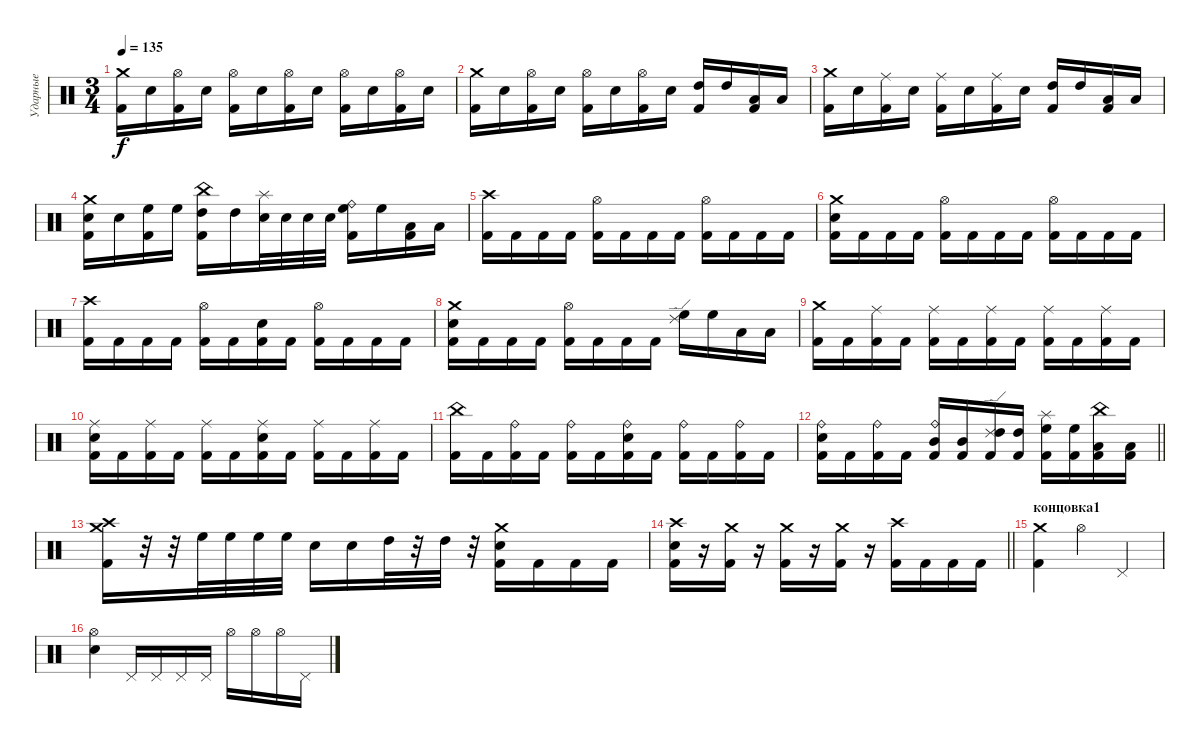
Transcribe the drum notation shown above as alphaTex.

\track ("Ударные" "Ударные") {instrument percussion}
\staff {score}
\articulation defaults
\ts (3 4)
\tempo 135
\clef neutral
\ks c
("Crash medium (hit)" "Kick (hit) 2").16{dy f} "Electric Snare (hit)".16 ("Hi-Hat (open)" "Kick (hit) 2").16 "Electric Snare (hit)".16 ("Hi-Hat (open)" "Kick (hit) 2").16 "Electric Snare (hit)".16 ("Hi-Hat (open)" "Kick (hit) 2").16 "Electric Snare (hit)".16 ("Hi-Hat (open)" "Kick (hit) 2").16 "Electric Snare (hit)".16 ("Hi-Hat (open)" "Kick (hit) 2").16 "Electric Snare (hit)".16 |
("Crash medium (hit)" "Kick (hit) 2").16 "Electric Snare (hit)".16 ("Hi-Hat (open)" "Kick (hit) 2").16 "Electric Snare (hit)".16 ("Hi-Hat (open)" "Kick (hit) 2").16 "Electric Snare (hit)".16 ("Hi-Hat (open)" "Kick (hit) 2").16 "Electric Snare (hit)".16 ("High Tom (hit)" "Kick (hit) 2").16 "High Tom (hit)".16 ("Low Tom (hit)" "Kick (hit) 2").16 "Low Tom (hit)".16 |
("Crash medium (hit)" "Kick (hit) 2").16 "Electric Snare (hit)".16 ("Ride (middle)" "Kick (hit) 2").16 "Electric Snare (hit)".16 ("Ride (middle)" "Kick (hit) 2").16 "Electric Snare (hit)".16 ("Ride (middle)" "Kick (hit) 2").16 "Electric Snare (hit)".16 ("High Tom (hit)" "Kick (hit) 2").16 "High Tom (hit)".16 ("Low Tom (hit)" "Kick (hit) 2").16 "Low Tom (hit)".16 |
("Crash medium (hit)" "Electric Snare (hit)" "Kick (hit) 2").16 "Electric Snare (hit)".16 ("High Floor Tom (hit)" "Kick (hit) 2").16 "High Floor Tom (hit)".16 ("China (hit)" "High Tom (hit)" "Kick (hit) 2").16 "High Tom (hit)".16 ("Splash (hit)" "Electric Snare (hit)").32 "Electric Snare (hit)".32 "Electric Snare (hit)".32 "Electric Snare (hit)".32 ("Ride (bell)" "High Floor Tom (hit)" "Kick (hit) 2").16 "High Floor Tom (hit)".16 ("Low Tom (hit)" "Kick (hit) 2").16 "Low Tom (hit)".16 |
("Crash high (hit)" "Kick (hit) 2").16 "Kick (hit) 2".16 "Kick (hit) 2".16 "Kick (hit) 2".16 ("Hi-Hat (open)" "Kick (hit) 2").16 "Kick (hit) 2".16 "Kick (hit) 2".16 "Kick (hit) 2".16 ("Hi-Hat (open)" "Kick (hit) 2").16 "Kick (hit) 2".16 "Kick (hit) 2".16 "Kick (hit) 2".16 |
("Crash medium (hit)" "Electric Snare (hit)" "Kick (hit) 2").16 "Kick (hit) 2".16 "Kick (hit) 2".16 "Kick (hit) 2".16 ("Hi-Hat (open)" "Kick (hit) 2").16 "Kick (hit) 2".16 "Kick (hit) 2".16 "Kick (hit) 2".16 ("Hi-Hat (open)" "Kick (hit) 2").16 "Kick (hit) 2".16 "Kick (hit) 2".16 "Kick (hit) 2".16 |
("Crash high (hit)" "Kick (hit) 2").16 "Kick (hit) 2".16 "Kick (hit) 2".16 "Kick (hit) 2".16 ("Hi-Hat (open)" "Kick (hit) 2").16 "Kick (hit) 2".16 ("Electric Snare (hit)" "Kick (hit) 2").16 "Kick (hit) 2".16 ("Hi-Hat (open)" "Kick (hit) 2").16 "Kick (hit) 2".16 "Kick (hit) 2".16 "Kick (hit) 2".16 |
("Crash medium (hit)" "Electric Snare (hit)" "Kick (hit) 2").16 "Kick (hit) 2".16 "Kick (hit) 2".16 "Kick (hit) 2".16 ("Hi-Hat (open)" "Kick (hit) 2").16 "Kick (hit) 2".16 "Kick (hit) 2".16 "Kick (hit) 2".16 ("Ride (edge) 2" "High Floor Tom (hit)").16 "High Floor Tom (hit)".16 "Low Tom (hit)".16 "Low Tom (hit)".16 |
("Crash medium (hit)" "Kick (hit) 2").16 "Kick (hit) 2".16 ("Ride (middle)" "Kick (hit) 2").16 "Kick (hit) 2".16 ("Ride (middle)" "Kick (hit) 2").16 "Kick (hit) 2".16 ("Ride (middle)" "Kick (hit) 2").16 "Kick (hit) 2".16 ("Ride (middle)" "Kick (hit) 2").16 "Kick (hit) 2".16 ("Ride (middle)" "Kick (hit) 2").16 "Kick (hit) 2".16 |
("Ride (middle)" "Electric Snare (hit)" "Kick (hit) 2").16 "Kick (hit) 2".16 ("Ride (middle)" "Kick (hit) 2").16 "Kick (hit) 2".16 ("Ride (middle)" "Kick (hit) 2").16 "Kick (hit) 2".16 ("Ride (middle)" "Electric Snare (hit)" "Kick (hit) 2").16 "Kick (hit) 2".16 ("Ride (middle)" "Kick (hit) 2").16 "Kick (hit) 2".16 ("Ride (middle)" "Kick (hit) 2").16 "Kick (hit) 2".16 |
("China (hit)" "Kick (hit) 2").16 "Kick (hit) 2".16 ("Ride (bell)" "Kick (hit) 2").16 "Kick (hit) 2".16 ("Ride (bell)" "Kick (hit) 2").16 "Kick (hit) 2".16 ("Ride (bell)" "Electric Snare (hit)" "Kick (hit) 2").16 "Kick (hit) 2".16 ("Ride (bell)" "Kick (hit) 2").16 "Kick (hit) 2".16 ("Ride (bell)" "Kick (hit) 2").16 "Kick (hit) 2".16 |
\barLineRight lightlight
("Ride (bell)" "Electric Snare (hit)" "Kick (hit) 2").16 "Kick (hit) 2".16 ("Ride (bell)" "Kick (hit) 2").16 "Kick (hit) 2".16 ("Ride (bell)" "Mid Tom (hit)" "Kick (hit) 2").16 ("Mid Tom (hit)" "Kick (hit) 2").16 ("Ride (edge) 2" "High Tom (hit)" "Kick (hit) 2").16 ("High Tom (hit)" "Kick (hit) 2").16 ("Splash (hit)" "High Floor Tom (hit)" "Kick (hit) 2").16 ("High Floor Tom (hit)" "Kick (hit) 2").16 ("China (hit)" "Low Tom (hit)" "Kick (hit) 2").16 ("Low Tom (hit)" "Kick (hit) 2").16 |
("Crash medium (hit)" "Crash high (hit)" "Kick (hit) 2").16 r.32 r.32 "High Floor Tom (hit)".32 "High Floor Tom (hit)".32 "High Floor Tom (hit)".32 "High Floor Tom (hit)".32 "Electric Snare (hit)".16 "Electric Snare (hit)".16 "High Tom (hit)".32 r.32 "High Tom (hit)".32 r.32 ("Crash medium (hit)" "Electric Snare (hit)" "Kick (hit) 2").16 "Kick (hit) 2".16 "Kick (hit) 2".16 "Kick (hit) 2".16 |
\barLineRight lightlight
("Crash high (hit)" "Electric Snare (hit)" "Kick (hit) 2").16 r.16 ("Crash medium (hit)" "Kick (hit) 2").16 r.16 ("Crash medium (hit)" "Kick (hit) 2").16 r.16 ("Crash medium (hit)" "Kick (hit) 2").16 r.16 ("Crash high (hit)" "Kick (hit) 2").16 "Kick (hit) 2".16 "Kick (hit) 2".16 "Kick (hit) 2".16 |
\section ("" "концовка1")
("Crash medium (hit)" "Kick (hit) 2").4 "Hi-Hat (open)".4 "Pedal Hi-Hat (hit)".4 |
("Hi-Hat (open)" "Electric Snare (hit)").4 "Pedal Hi-Hat (hit)".16 "Pedal Hi-Hat (hit)".16 "Pedal Hi-Hat (hit)".16 "Pedal Hi-Hat (hit)".16 "Hi-Hat (open)".16 "Hi-Hat (open)".16 "Hi-Hat (open)".16 "Pedal Hi-Hat (hit)".16
